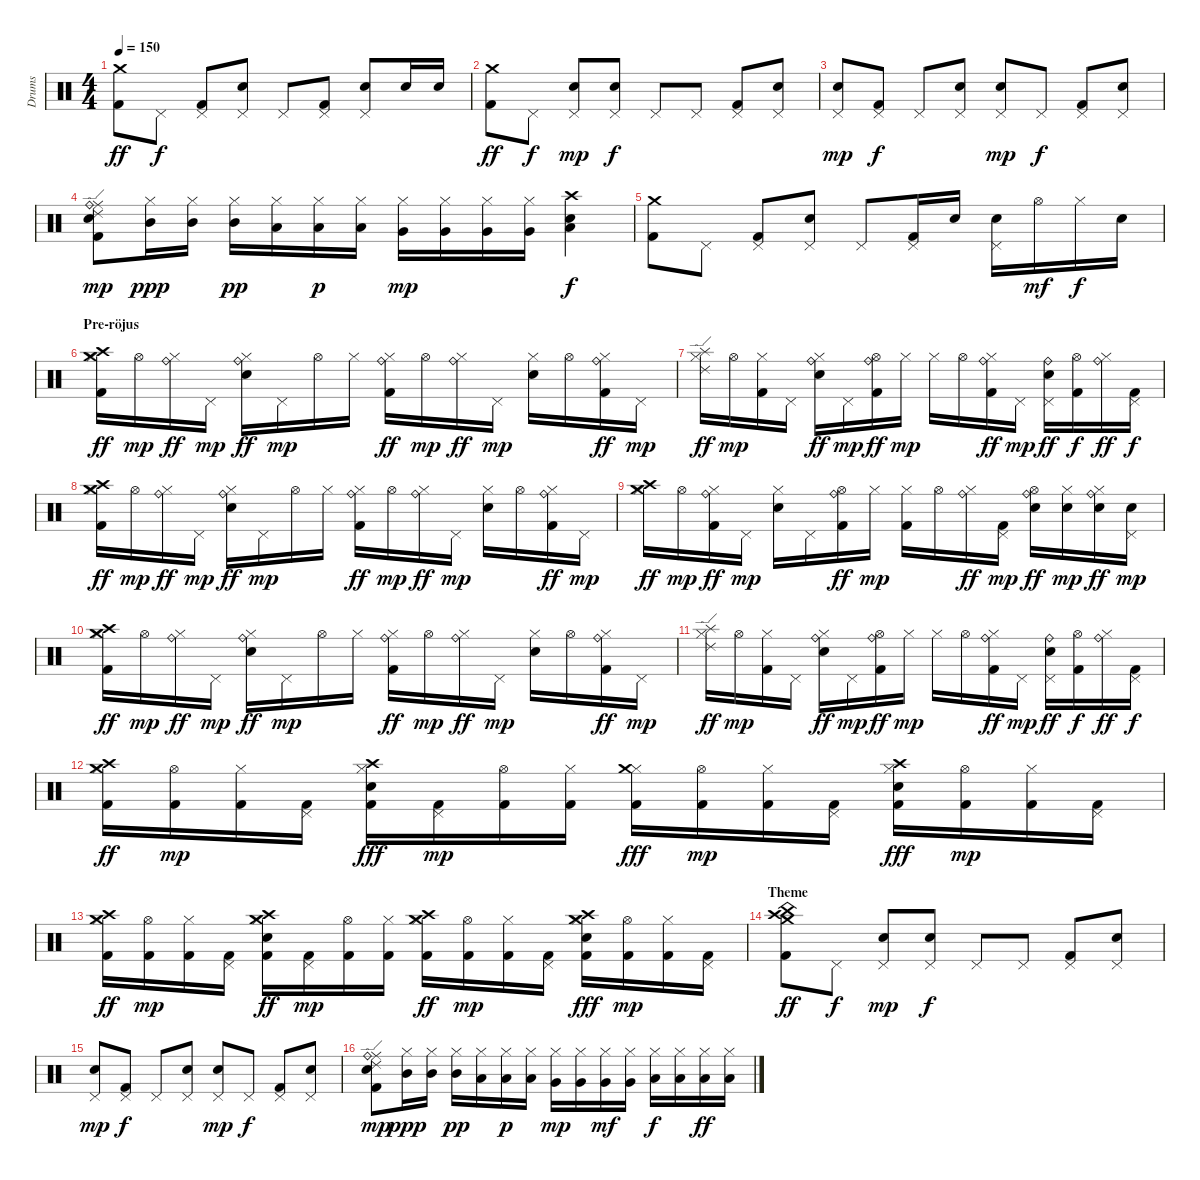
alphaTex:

\track ("Drums" "Drums") {instrument percussion}
\staff {score}
\articulation defaults
\ts (4 4)
\tempo 150
\clef neutral
\ks c
("Crash medium (hit)" "Kick (hit) 2").8{dy ff} "Pedal Hi-Hat (hit)".8{dy f} ("Pedal Hi-Hat (hit)" "Kick (hit) 2").8 ("Pedal Hi-Hat (hit)" "Electric Snare (hit)").8 "Pedal Hi-Hat (hit)".8 ("Pedal Hi-Hat (hit)" "Kick (hit) 2").8 ("Pedal Hi-Hat (hit)" "Electric Snare (hit)").8 "Electric Snare (hit)".16 "Electric Snare (hit)".16 |
("Crash medium (hit)" "Kick (hit) 2").8{dy ff} "Pedal Hi-Hat (hit)".8{dy f} ("Pedal Hi-Hat (hit)" "Snare (hit) 2").8{dy mp} ("Pedal Hi-Hat (hit)" "Electric Snare (hit)").8{dy f} "Pedal Hi-Hat (hit)".8 "Pedal Hi-Hat (hit)".8 ("Pedal Hi-Hat (hit)" "Kick (hit) 2").8 ("Pedal Hi-Hat (hit)" "Electric Snare (hit)").8 |
("Pedal Hi-Hat (hit)" "Snare (hit) 2").8{dy mp} ("Pedal Hi-Hat (hit)" "Kick (hit) 2").8{dy f} "Pedal Hi-Hat (hit)".8 ("Pedal Hi-Hat (hit)" "Electric Snare (hit)").8 ("Pedal Hi-Hat (hit)" "Snare (hit) 2").8{dy mp} "Pedal Hi-Hat (hit)".8{dy f} ("Pedal Hi-Hat (hit)" "Kick (hit) 2").8 ("Pedal Hi-Hat (hit)" "Electric Snare (hit)").8 |
("Ride (middle)" "Ride (edge) 2" "Ride (bell)" "Snare (hit) 2" "Kick (hit) 2").8{dy mp} ("Hi-Hat (closed)" "Mid Tom (hit)").16{dy ppp} ("Hi-Hat (closed)" "Mid Tom (hit)").16 ("Hi-Hat (closed)" "Mid Tom (hit)").16{dy pp} ("Hi-Hat (closed)" "Low Tom (hit)").16 ("Hi-Hat (closed)" "Low Tom (hit)").16{dy p} ("Hi-Hat (closed)" "Low Tom (hit)").16 ("Hi-Hat (closed)" "Very Low Tom (hit)").16{dy mp} ("Hi-Hat (closed)" "Very Low Tom (hit)").16 ("Hi-Hat (closed)" "Very Low Tom (hit)").16 ("Hi-Hat (closed)" "Very Low Tom (hit)").16 ("Crash high (hit)" "Electric Snare (hit)" "Low Floor Tom (hit)").4{dy f} |
("Crash medium (hit)" "Kick (hit) 2").8 "Pedal Hi-Hat (hit)".8 ("Pedal Hi-Hat (hit)" "Kick (hit) 2").8 ("Pedal Hi-Hat (hit)" "Electric Snare (hit)").8 "Pedal Hi-Hat (hit)".8 ("Pedal Hi-Hat (hit)" "Kick (hit) 2").16 "Electric Snare (hit)".16 ("Pedal Hi-Hat (hit)" "Electric Snare (hit)").16 "Hi-Hat (open)".16{dy mf} "Hi-Hat (closed)".16{dy f} "Electric Snare (hit)".16 |
\section ("" "Pre-röjus")
("Hi-Hat (closed)" "Crash medium (hit)" "Crash high (hit)" "Kick (hit) 2").16{dy ff} "Hi-Hat (open)".16{dy mp} ("Hi-Hat (closed)" "Ride (bell)").16{dy ff} "Pedal Hi-Hat (hit)".16{dy mp} ("Hi-Hat (closed)" "Ride (bell)" "Electric Snare (hit)").16{dy ff} "Pedal Hi-Hat (hit)".16{dy mp} "Hi-Hat (open)".16 "Hi-Hat (closed)".16 ("Hi-Hat (closed)" "Ride (bell)" "Kick (hit) 2").16{dy ff} "Hi-Hat (open)".16{dy mp} ("Hi-Hat (closed)" "Ride (bell)").16{dy ff} "Pedal Hi-Hat (hit)".16{dy mp} ("Hi-Hat (closed)" "Electric Snare (hit)").16 "Hi-Hat (open)".16 ("Hi-Hat (closed)" "Ride (bell)" "Kick (hit) 2").16{dy ff} "Pedal Hi-Hat (hit)".16{dy mp} |
("Hi-Hat (closed)" "Splash (hit)" "Ride (edge) 2").16{dy ff} "Hi-Hat (open)".16{dy mp} ("Hi-Hat (closed)" "Kick (hit) 2").16 "Pedal Hi-Hat (hit)".16 ("Hi-Hat (closed)" "Ride (bell)" "Electric Snare (hit)").16{dy ff} "Pedal Hi-Hat (hit)".16{dy mp} ("Hi-Hat (open)" "Ride (bell)" "Kick (hit) 2").16{dy ff} "Hi-Hat (closed)".16{dy mp} "Hi-Hat (closed)".16 "Hi-Hat (open)".16 ("Hi-Hat (closed)" "Ride (bell)" "Kick (hit) 2").16{dy ff} "Pedal Hi-Hat (hit)".16{dy mp} ("Pedal Hi-Hat (hit)" "Ride (bell)" "Electric Snare (hit)").16{dy ff} ("Hi-Hat (open)" "Kick (hit) 2").16{dy f} ("Hi-Hat (closed)" "Ride (bell)").16{dy ff} ("Pedal Hi-Hat (hit)" "Kick (hit) 2").16{dy f} |
("Hi-Hat (closed)" "Crash medium (hit)" "Crash high (hit)" "Kick (hit) 2").16{dy ff} "Hi-Hat (open)".16{dy mp} ("Hi-Hat (closed)" "Ride (bell)").16{dy ff} "Pedal Hi-Hat (hit)".16{dy mp} ("Hi-Hat (closed)" "Ride (bell)" "Electric Snare (hit)").16{dy ff} "Pedal Hi-Hat (hit)".16{dy mp} "Hi-Hat (open)".16 "Hi-Hat (closed)".16 ("Hi-Hat (closed)" "Ride (bell)" "Kick (hit) 2").16{dy ff} "Hi-Hat (open)".16{dy mp} ("Hi-Hat (closed)" "Ride (bell)").16{dy ff} "Pedal Hi-Hat (hit)".16{dy mp} ("Hi-Hat (closed)" "Electric Snare (hit)").16 "Hi-Hat (open)".16 ("Hi-Hat (closed)" "Ride (bell)" "Kick (hit) 2").16{dy ff} "Pedal Hi-Hat (hit)".16{dy mp} |
("Hi-Hat (closed)" "Crash medium (hit)" "Crash high (hit)").16{dy ff} "Hi-Hat (open)".16{dy mp} ("Hi-Hat (closed)" "Ride (bell)" "Kick (hit) 2").16{dy ff} "Pedal Hi-Hat (hit)".16{dy mp} ("Hi-Hat (closed)" "Electric Snare (hit)").16 "Pedal Hi-Hat (hit)".16 ("Hi-Hat (open)" "Ride (bell)" "Kick (hit) 2").16{dy ff} "Hi-Hat (closed)".16{dy mp} ("Hi-Hat (closed)" "Kick (hit) 2").16 "Hi-Hat (open)".16 ("Hi-Hat (closed)" "Ride (bell)").16{dy ff} ("Pedal Hi-Hat (hit)" "Kick (hit) 2").16{dy mp} ("Hi-Hat (open)" "Ride (bell)" "Electric Snare (hit)").16{dy ff} ("Hi-Hat (closed)" "Electric Snare (hit)").16{dy mp} ("Hi-Hat (closed)" "Ride (bell)" "Electric Snare (hit)").16{dy ff} ("Pedal Hi-Hat (hit)" "Electric Snare (hit)").16{dy mp} |
("Hi-Hat (closed)" "Crash medium (hit)" "Crash high (hit)" "Kick (hit) 2").16{dy ff} "Hi-Hat (open)".16{dy mp} ("Hi-Hat (closed)" "Ride (bell)").16{dy ff} "Pedal Hi-Hat (hit)".16{dy mp} ("Hi-Hat (closed)" "Ride (bell)" "Electric Snare (hit)").16{dy ff} "Pedal Hi-Hat (hit)".16{dy mp} "Hi-Hat (open)".16 "Hi-Hat (closed)".16 ("Hi-Hat (closed)" "Ride (bell)" "Kick (hit) 2").16{dy ff} "Hi-Hat (open)".16{dy mp} ("Hi-Hat (closed)" "Ride (bell)").16{dy ff} "Pedal Hi-Hat (hit)".16{dy mp} ("Hi-Hat (closed)" "Electric Snare (hit)").16 "Hi-Hat (open)".16 ("Hi-Hat (closed)" "Ride (bell)" "Kick (hit) 2").16{dy ff} "Pedal Hi-Hat (hit)".16{dy mp} |
("Hi-Hat (closed)" "Splash (hit)" "Ride (edge) 2").16{dy ff} "Hi-Hat (open)".16{dy mp} ("Hi-Hat (closed)" "Kick (hit) 2").16 "Pedal Hi-Hat (hit)".16 ("Hi-Hat (closed)" "Ride (bell)" "Electric Snare (hit)").16{dy ff} "Pedal Hi-Hat (hit)".16{dy mp} ("Hi-Hat (open)" "Ride (bell)" "Kick (hit) 2").16{dy ff} "Hi-Hat (closed)".16{dy mp} "Hi-Hat (closed)".16 "Hi-Hat (open)".16 ("Hi-Hat (closed)" "Ride (bell)" "Kick (hit) 2").16{dy ff} "Pedal Hi-Hat (hit)".16{dy mp} ("Pedal Hi-Hat (hit)" "Ride (bell)" "Electric Snare (hit)").16{dy ff} ("Hi-Hat (open)" "Kick (hit) 2").16{dy f} ("Hi-Hat (closed)" "Ride (bell)").16{dy ff} ("Pedal Hi-Hat (hit)" "Kick (hit) 2").16{dy f} |
\section ("" "")
("Hi-Hat (closed)" "Crash medium (hit)" "Crash high (hit)" "Kick (hit) 2").16{dy ff} ("Hi-Hat (open)" "Kick (hit) 2").16{dy mp} ("Hi-Hat (closed)" "Kick (hit) 2").16 ("Pedal Hi-Hat (hit)" "Kick (hit) 2").16 ("Hi-Hat (closed)" "Crash high (hit)" "Electric Snare (hit)" "Kick (hit) 2").16{dy fff} ("Pedal Hi-Hat (hit)" "Kick (hit) 2").16{dy mp} ("Hi-Hat (open)" "Kick (hit) 2").16 ("Hi-Hat (closed)" "Kick (hit) 2").16 ("Hi-Hat (closed)" "Crash medium (hit)" "Kick (hit) 2").16{dy fff} ("Hi-Hat (open)" "Kick (hit) 2").16{dy mp} ("Hi-Hat (closed)" "Kick (hit) 2").16 ("Pedal Hi-Hat (hit)" "Kick (hit) 2").16 ("Hi-Hat (closed)" "Crash high (hit)" "Electric Snare (hit)" "Kick (hit) 2").16{dy fff} ("Hi-Hat (open)" "Kick (hit) 2").16{dy mp} ("Hi-Hat (closed)" "Kick (hit) 2").16 ("Pedal Hi-Hat (hit)" "Kick (hit) 2").16 |
("Hi-Hat (closed)" "Crash medium (hit)" "Crash high (hit)" "Kick (hit) 2").16{dy ff} ("Hi-Hat (open)" "Kick (hit) 2").16{dy mp} ("Hi-Hat (closed)" "Kick (hit) 2").16 ("Pedal Hi-Hat (hit)" "Kick (hit) 2").16 ("Hi-Hat (closed)" "Crash high (hit)" "Crash medium (hit)" "Electric Snare (hit)" "Kick (hit) 2").16{dy ff} ("Pedal Hi-Hat (hit)" "Kick (hit) 2").16{dy mp} ("Hi-Hat (open)" "Kick (hit) 2").16 ("Hi-Hat (closed)" "Kick (hit) 2").16 ("Hi-Hat (closed)" "Crash medium (hit)" "Crash high (hit)" "Kick (hit) 2").16{dy ff} ("Hi-Hat (open)" "Kick (hit) 2").16{dy mp} ("Hi-Hat (closed)" "Kick (hit) 2").16 ("Pedal Hi-Hat (hit)" "Kick (hit) 2").16 ("Hi-Hat (closed)" "Crash high (hit)" "Crash medium (hit)" "Electric Snare (hit)" "Kick (hit) 2").16{dy fff} ("Hi-Hat (open)" "Kick (hit) 2").16{dy mp} ("Hi-Hat (closed)" "Kick (hit) 2").16 ("Pedal Hi-Hat (hit)" "Kick (hit) 2").16 |
\section ("" "Theme")
("Crash medium (hit)" "Crash high (hit)" "China (hit)" "Kick (hit) 2").8{dy ff} "Pedal Hi-Hat (hit)".8{dy f} ("Pedal Hi-Hat (hit)" "Snare (hit) 2").8{dy mp} ("Pedal Hi-Hat (hit)" "Electric Snare (hit)").8{dy f} "Pedal Hi-Hat (hit)".8 "Pedal Hi-Hat (hit)".8 ("Pedal Hi-Hat (hit)" "Kick (hit) 2").8 ("Pedal Hi-Hat (hit)" "Electric Snare (hit)").8 |
("Pedal Hi-Hat (hit)" "Snare (hit) 2").8{dy mp} ("Pedal Hi-Hat (hit)" "Kick (hit) 2").8{dy f} "Pedal Hi-Hat (hit)".8 ("Pedal Hi-Hat (hit)" "Electric Snare (hit)").8 ("Pedal Hi-Hat (hit)" "Snare (hit) 2").8{dy mp} "Pedal Hi-Hat (hit)".8{dy f} ("Pedal Hi-Hat (hit)" "Kick (hit) 2").8 ("Pedal Hi-Hat (hit)" "Electric Snare (hit)").8 |
("Ride (middle)" "Ride (edge) 2" "Ride (bell)" "Snare (hit) 2" "Kick (hit) 2").8{dy mp} ("Hi-Hat (closed)" "Mid Tom (hit)").16{dy ppp} ("Hi-Hat (closed)" "Mid Tom (hit)").16 ("Hi-Hat (closed)" "Mid Tom (hit)").16{dy pp} ("Hi-Hat (closed)" "Low Tom (hit)").16 ("Hi-Hat (closed)" "Low Tom (hit)").16{dy p} ("Hi-Hat (closed)" "Low Tom (hit)").16 ("Hi-Hat (closed)" "Very Low Tom (hit)").16{dy mp} ("Hi-Hat (closed)" "Very Low Tom (hit)").16 ("Hi-Hat (closed)" "Very Low Tom (hit)").16{dy mf} ("Hi-Hat (closed)" "Very Low Tom (hit)").16 ("Hi-Hat (closed)" "Low Floor Tom (hit)").16{dy f} ("Hi-Hat (closed)" "Low Floor Tom (hit)").16 ("Hi-Hat (closed)" "Low Floor Tom (hit)").16{dy ff} ("Hi-Hat (closed)" "Low Floor Tom (hit)").16
